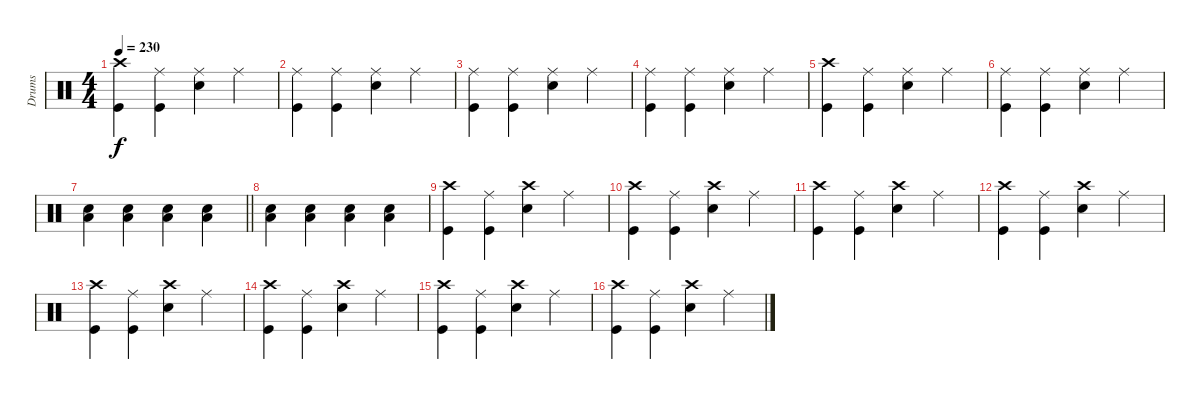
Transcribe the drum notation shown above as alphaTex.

\track ("Drums" "Drums") {instrument percussion}
\staff {score}
\articulation defaults
\ts (4 4)
\tempo 230
\clef neutral
\ks c
("Crash high (hit)" "Kick (hit)").4{dy f} ("Ride (middle)" "Kick (hit)").4 ("Ride (middle)" "Snare (hit) 2").4 "Ride (middle)".4 |
("Ride (middle)" "Kick (hit)").4 ("Ride (middle)" "Kick (hit)").4 ("Ride (middle)" "Snare (hit) 2").4 "Ride (middle)".4 |
("Ride (middle)" "Kick (hit)").4 ("Ride (middle)" "Kick (hit)").4 ("Ride (middle)" "Snare (hit) 2").4 "Ride (middle)".4 |
("Ride (middle)" "Kick (hit)").4 ("Ride (middle)" "Kick (hit)").4 ("Ride (middle)" "Snare (hit) 2").4 "Ride (middle)".4 |
("Crash high (hit)" "Kick (hit)").4 ("Ride (middle)" "Kick (hit)").4 ("Ride (middle)" "Snare (hit) 2").4 "Ride (middle)".4 |
("Ride (middle)" "Kick (hit)").4 ("Ride (middle)" "Kick (hit)").4 ("Ride (middle)" "Snare (hit) 2").4 "Ride (middle)".4 |
\barLineRight lightlight
("Low Tom (hit)" "Snare (hit) 2").4 ("Low Tom (hit)" "Snare (hit) 2").4 ("Low Tom (hit)" "Snare (hit) 2").4 ("Low Tom (hit)" "Snare (hit) 2").4 |
("Low Tom (hit)" "Snare (hit) 2").4 ("Low Tom (hit)" "Snare (hit) 2").4 ("Low Tom (hit)" "Snare (hit) 2").4 ("Low Tom (hit)" "Snare (hit) 2").4 |
("Crash high (hit)" "Kick (hit)").4 ("Ride (middle)" "Kick (hit)").4 ("Crash high (hit)" "Snare (hit) 2").4 "Ride (middle)".4 |
("Crash high (hit)" "Kick (hit)").4 ("Ride (middle)" "Kick (hit)").4 ("Crash high (hit)" "Snare (hit) 2").4 "Ride (middle)".4 |
("Crash high (hit)" "Kick (hit)").4 ("Ride (middle)" "Kick (hit)").4 ("Crash high (hit)" "Snare (hit) 2").4 "Ride (middle)".4 |
("Crash high (hit)" "Kick (hit)").4 ("Ride (middle)" "Kick (hit)").4 ("Crash high (hit)" "Snare (hit) 2").4 "Ride (middle)".4 |
("Crash high (hit)" "Kick (hit)").4 ("Ride (middle)" "Kick (hit)").4 ("Crash high (hit)" "Snare (hit) 2").4 "Ride (middle)".4 |
("Crash high (hit)" "Kick (hit)").4 ("Ride (middle)" "Kick (hit)").4 ("Crash high (hit)" "Snare (hit) 2").4 "Ride (middle)".4 |
("Crash high (hit)" "Kick (hit)").4 ("Ride (middle)" "Kick (hit)").4 ("Crash high (hit)" "Snare (hit) 2").4 "Ride (middle)".4 |
("Crash high (hit)" "Kick (hit)").4 ("Ride (middle)" "Kick (hit)").4 ("Crash high (hit)" "Snare (hit) 2").4 "Ride (middle)".4
